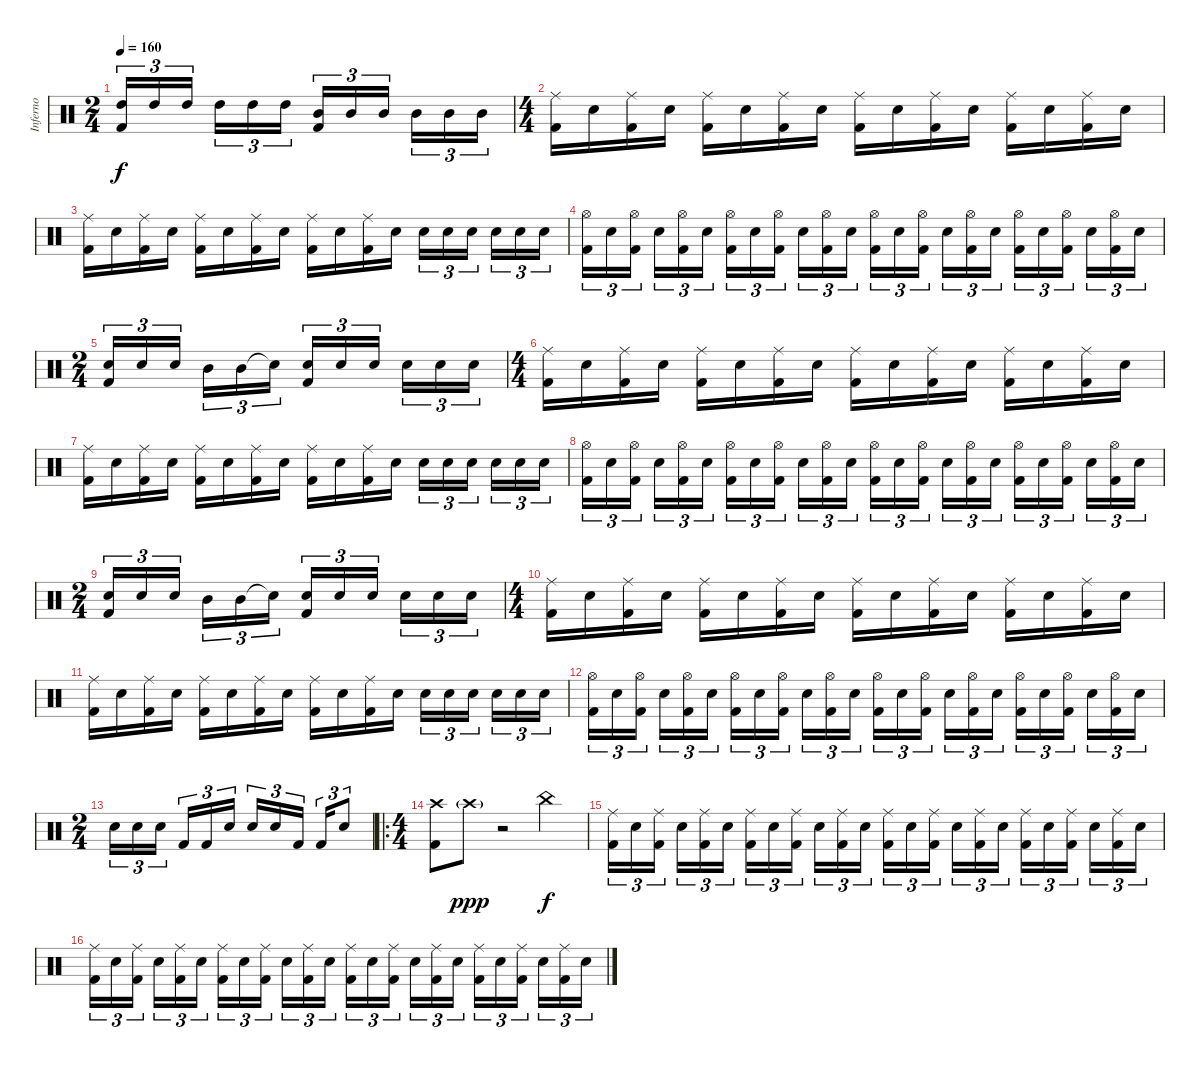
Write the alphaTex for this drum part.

\track ("Inferno" "Inferno") {instrument percussion}
\staff {score}
\articulation defaults
\ts (2 4)
\tempo 160
\clef neutral
\ks c
("High Tom (hit)" "Kick (hit) 2").16{tu (3 2) dy f} "High Tom (hit)".16{tu (3 2)} "High Tom (hit)".16{tu (3 2)} "High Tom (hit)".16{tu (3 2)} "High Tom (hit)".16{tu (3 2)} "High Tom (hit)".16{tu (3 2)} ("Mid Tom (hit)" "Kick (hit) 2").16{tu (3 2)} "Mid Tom (hit)".16{tu (3 2)} "Mid Tom (hit)".16{tu (3 2)} "Mid Tom (hit)".16{tu (3 2)} "Mid Tom (hit)".16{tu (3 2)} "Mid Tom (hit)".16{tu (3 2)} |
\ts (4 4)
("Ride (middle)" "Kick (hit) 2").16 "Electric Snare (hit)".16 ("Ride (middle)" "Kick (hit) 2").16 "Electric Snare (hit)".16 ("Ride (middle)" "Kick (hit) 2").16 "Electric Snare (hit)".16 ("Ride (middle)" "Kick (hit) 2").16 "Electric Snare (hit)".16 ("Ride (middle)" "Kick (hit) 2").16 "Electric Snare (hit)".16 ("Ride (middle)" "Kick (hit) 2").16 "Electric Snare (hit)".16 ("Ride (middle)" "Kick (hit) 2").16 "Electric Snare (hit)".16 ("Ride (middle)" "Kick (hit) 2").16 "Electric Snare (hit)".16 |
("Ride (middle)" "Kick (hit) 2").16 "Electric Snare (hit)".16 ("Ride (middle)" "Kick (hit) 2").16 "Electric Snare (hit)".16 ("Ride (middle)" "Kick (hit) 2").16 "Electric Snare (hit)".16 ("Ride (middle)" "Kick (hit) 2").16 "Electric Snare (hit)".16 ("Ride (middle)" "Kick (hit) 2").16 "Electric Snare (hit)".16 ("Ride (middle)" "Kick (hit) 2").16 "Electric Snare (hit)".16 "Electric Snare (hit)".16{tu (3 2)} "Electric Snare (hit)".16{tu (3 2)} "Electric Snare (hit)".16{tu (3 2)} "Electric Snare (hit)".16{tu (3 2)} "Electric Snare (hit)".16{tu (3 2)} "Electric Snare (hit)".16{tu (3 2)} |
("Hi-Hat (open)" "Kick (hit) 2").16{tu (3 2)} "Electric Snare (hit)".16{tu (3 2)} ("Hi-Hat (open)" "Kick (hit) 2").16{tu (3 2)} "Electric Snare (hit)".16{tu (3 2)} ("Hi-Hat (open)" "Kick (hit) 2").16{tu (3 2)} "Electric Snare (hit)".16{tu (3 2)} ("Hi-Hat (open)" "Kick (hit) 2").16{tu (3 2)} "Electric Snare (hit)".16{tu (3 2)} ("Hi-Hat (open)" "Kick (hit) 2").16{tu (3 2)} "Electric Snare (hit)".16{tu (3 2)} ("Hi-Hat (open)" "Kick (hit) 2").16{tu (3 2)} "Electric Snare (hit)".16{tu (3 2)} ("Hi-Hat (open)" "Kick (hit) 2").16{tu (3 2)} "Electric Snare (hit)".16{tu (3 2)} ("Hi-Hat (open)" "Kick (hit) 2").16{tu (3 2)} "Electric Snare (hit)".16{tu (3 2)} ("Hi-Hat (open)" "Kick (hit) 2").16{tu (3 2)} "Electric Snare (hit)".16{tu (3 2)} ("Hi-Hat (open)" "Kick (hit) 2").16{tu (3 2)} "Electric Snare (hit)".16{tu (3 2)} ("Hi-Hat (open)" "Kick (hit) 2").16{tu (3 2)} "Electric Snare (hit)".16{tu (3 2)} ("Hi-Hat (open)" "Kick (hit) 2").16{tu (3 2)} "Electric Snare (hit)".16{tu (3 2)} |
\ts (2 4)
("Electric Snare (hit)" "Kick (hit) 2").16{tu (3 2)} "Electric Snare (hit)".16{tu (3 2)} "Electric Snare (hit)".16{tu (3 2)} "Mid Tom (hit)".16{tu (3 2)} "Mid Tom (hit)".16{tu (3 2)} "Snare (hit)"{t}.16{tu (3 2)} ("Electric Snare (hit)" "Kick (hit) 2").16{tu (3 2)} "Electric Snare (hit)".16{tu (3 2)} "Electric Snare (hit)".16{tu (3 2)} "Electric Snare (hit)".16{tu (3 2)} "Electric Snare (hit)".16{tu (3 2)} "Electric Snare (hit)".16{tu (3 2)} |
\ts (4 4)
("Ride (middle)" "Kick (hit) 2").16 "Electric Snare (hit)".16 ("Ride (middle)" "Kick (hit) 2").16 "Electric Snare (hit)".16 ("Ride (middle)" "Kick (hit) 2").16 "Electric Snare (hit)".16 ("Ride (middle)" "Kick (hit) 2").16 "Electric Snare (hit)".16 ("Ride (middle)" "Kick (hit) 2").16 "Electric Snare (hit)".16 ("Ride (middle)" "Kick (hit) 2").16 "Electric Snare (hit)".16 ("Ride (middle)" "Kick (hit) 2").16 "Electric Snare (hit)".16 ("Ride (middle)" "Kick (hit) 2").16 "Electric Snare (hit)".16 |
("Ride (middle)" "Kick (hit) 2").16 "Electric Snare (hit)".16 ("Ride (middle)" "Kick (hit) 2").16 "Electric Snare (hit)".16 ("Ride (middle)" "Kick (hit) 2").16 "Electric Snare (hit)".16 ("Ride (middle)" "Kick (hit) 2").16 "Electric Snare (hit)".16 ("Ride (middle)" "Kick (hit) 2").16 "Electric Snare (hit)".16 ("Ride (middle)" "Kick (hit) 2").16 "Electric Snare (hit)".16 "Electric Snare (hit)".16{tu (3 2)} "Electric Snare (hit)".16{tu (3 2)} "Electric Snare (hit)".16{tu (3 2)} "Electric Snare (hit)".16{tu (3 2)} "Electric Snare (hit)".16{tu (3 2)} "Electric Snare (hit)".16{tu (3 2)} |
("Hi-Hat (open)" "Kick (hit) 2").16{tu (3 2)} "Electric Snare (hit)".16{tu (3 2)} ("Hi-Hat (open)" "Kick (hit) 2").16{tu (3 2)} "Electric Snare (hit)".16{tu (3 2)} ("Hi-Hat (open)" "Kick (hit) 2").16{tu (3 2)} "Electric Snare (hit)".16{tu (3 2)} ("Hi-Hat (open)" "Kick (hit) 2").16{tu (3 2)} "Electric Snare (hit)".16{tu (3 2)} ("Hi-Hat (open)" "Kick (hit) 2").16{tu (3 2)} "Electric Snare (hit)".16{tu (3 2)} ("Hi-Hat (open)" "Kick (hit) 2").16{tu (3 2)} "Electric Snare (hit)".16{tu (3 2)} ("Hi-Hat (open)" "Kick (hit) 2").16{tu (3 2)} "Electric Snare (hit)".16{tu (3 2)} ("Hi-Hat (open)" "Kick (hit) 2").16{tu (3 2)} "Electric Snare (hit)".16{tu (3 2)} ("Hi-Hat (open)" "Kick (hit) 2").16{tu (3 2)} "Electric Snare (hit)".16{tu (3 2)} ("Hi-Hat (open)" "Kick (hit) 2").16{tu (3 2)} "Electric Snare (hit)".16{tu (3 2)} ("Hi-Hat (open)" "Kick (hit) 2").16{tu (3 2)} "Electric Snare (hit)".16{tu (3 2)} ("Hi-Hat (open)" "Kick (hit) 2").16{tu (3 2)} "Electric Snare (hit)".16{tu (3 2)} |
\ts (2 4)
("Electric Snare (hit)" "Kick (hit) 2").16{tu (3 2)} "Electric Snare (hit)".16{tu (3 2)} "Electric Snare (hit)".16{tu (3 2)} "Mid Tom (hit)".16{tu (3 2)} "Mid Tom (hit)".16{tu (3 2)} "Snare (hit)"{t}.16{tu (3 2)} ("Electric Snare (hit)" "Kick (hit) 2").16{tu (3 2)} "Electric Snare (hit)".16{tu (3 2)} "Electric Snare (hit)".16{tu (3 2)} "Electric Snare (hit)".16{tu (3 2)} "Electric Snare (hit)".16{tu (3 2)} "Electric Snare (hit)".16{tu (3 2)} |
\ts (4 4)
("Ride (middle)" "Kick (hit) 2").16 "Electric Snare (hit)".16 ("Ride (middle)" "Kick (hit) 2").16 "Electric Snare (hit)".16 ("Ride (middle)" "Kick (hit) 2").16 "Electric Snare (hit)".16 ("Ride (middle)" "Kick (hit) 2").16 "Electric Snare (hit)".16 ("Ride (middle)" "Kick (hit) 2").16 "Electric Snare (hit)".16 ("Ride (middle)" "Kick (hit) 2").16 "Electric Snare (hit)".16 ("Ride (middle)" "Kick (hit) 2").16 "Electric Snare (hit)".16 ("Ride (middle)" "Kick (hit) 2").16 "Electric Snare (hit)".16 |
("Ride (middle)" "Kick (hit) 2").16 "Electric Snare (hit)".16 ("Ride (middle)" "Kick (hit) 2").16 "Electric Snare (hit)".16 ("Ride (middle)" "Kick (hit) 2").16 "Electric Snare (hit)".16 ("Ride (middle)" "Kick (hit) 2").16 "Electric Snare (hit)".16 ("Ride (middle)" "Kick (hit) 2").16 "Electric Snare (hit)".16 ("Ride (middle)" "Kick (hit) 2").16 "Electric Snare (hit)".16 "Electric Snare (hit)".16{tu (3 2)} "Electric Snare (hit)".16{tu (3 2)} "Electric Snare (hit)".16{tu (3 2)} "Electric Snare (hit)".16{tu (3 2)} "Electric Snare (hit)".16{tu (3 2)} "Electric Snare (hit)".16{tu (3 2)} |
("Hi-Hat (open)" "Kick (hit) 2").16{tu (3 2)} "Electric Snare (hit)".16{tu (3 2)} ("Hi-Hat (open)" "Kick (hit) 2").16{tu (3 2)} "Electric Snare (hit)".16{tu (3 2)} ("Hi-Hat (open)" "Kick (hit) 2").16{tu (3 2)} "Electric Snare (hit)".16{tu (3 2)} ("Hi-Hat (open)" "Kick (hit) 2").16{tu (3 2)} "Electric Snare (hit)".16{tu (3 2)} ("Hi-Hat (open)" "Kick (hit) 2").16{tu (3 2)} "Electric Snare (hit)".16{tu (3 2)} ("Hi-Hat (open)" "Kick (hit) 2").16{tu (3 2)} "Electric Snare (hit)".16{tu (3 2)} ("Hi-Hat (open)" "Kick (hit) 2").16{tu (3 2)} "Electric Snare (hit)".16{tu (3 2)} ("Hi-Hat (open)" "Kick (hit) 2").16{tu (3 2)} "Electric Snare (hit)".16{tu (3 2)} ("Hi-Hat (open)" "Kick (hit) 2").16{tu (3 2)} "Electric Snare (hit)".16{tu (3 2)} ("Hi-Hat (open)" "Kick (hit) 2").16{tu (3 2)} "Electric Snare (hit)".16{tu (3 2)} ("Hi-Hat (open)" "Kick (hit) 2").16{tu (3 2)} "Electric Snare (hit)".16{tu (3 2)} ("Hi-Hat (open)" "Kick (hit) 2").16{tu (3 2)} "Electric Snare (hit)".16{tu (3 2)} |
\ts (2 4)
"Electric Snare (hit)".16{tu (3 2)} "Electric Snare (hit)".16{tu (3 2)} "Electric Snare (hit)".16{tu (3 2)} "Kick (hit) 2".16{tu (3 2)} "Kick (hit) 2".16{tu (3 2)} "Electric Snare (hit)".16{tu (3 2)} "Electric Snare (hit)".16{tu (3 2)} "Electric Snare (hit)".16{tu (3 2)} "Kick (hit) 2".16{tu (3 2)} "Kick (hit) 2".16{tu (3 2)} "Electric Snare (hit)".8{tu (3 2)} |
\ro
\ts (4 4)
("Crash high (hit)" "Kick (hit) 2").8 "Crash high (hit)"{g}.8{dy ppp} r.2 "China (hit)".4{dy f} |
("Ride (middle)" "Kick (hit) 2").16{tu (3 2)} "Electric Snare (hit)".16{tu (3 2)} ("Ride (middle)" "Kick (hit) 2").16{tu (3 2)} "Electric Snare (hit)".16{tu (3 2)} ("Ride (middle)" "Kick (hit) 2").16{tu (3 2)} "Electric Snare (hit)".16{tu (3 2)} ("Ride (middle)" "Kick (hit) 2").16{tu (3 2)} "Electric Snare (hit)".16{tu (3 2)} ("Ride (middle)" "Kick (hit) 2").16{tu (3 2)} "Electric Snare (hit)".16{tu (3 2)} ("Ride (middle)" "Kick (hit) 2").16{tu (3 2)} "Electric Snare (hit)".16{tu (3 2)} ("Ride (middle)" "Kick (hit) 2").16{tu (3 2)} "Electric Snare (hit)".16{tu (3 2)} ("Ride (middle)" "Kick (hit) 2").16{tu (3 2)} "Electric Snare (hit)".16{tu (3 2)} ("Ride (middle)" "Kick (hit) 2").16{tu (3 2)} "Electric Snare (hit)".16{tu (3 2)} ("Ride (middle)" "Kick (hit) 2").16{tu (3 2)} "Electric Snare (hit)".16{tu (3 2)} ("Ride (middle)" "Kick (hit) 2").16{tu (3 2)} "Electric Snare (hit)".16{tu (3 2)} ("Ride (middle)" "Kick (hit) 2").16{tu (3 2)} "Electric Snare (hit)".16{tu (3 2)} |
("Ride (middle)" "Kick (hit) 2").16{tu (3 2)} "Electric Snare (hit)".16{tu (3 2)} ("Ride (middle)" "Kick (hit) 2").16{tu (3 2)} "Electric Snare (hit)".16{tu (3 2)} ("Ride (middle)" "Kick (hit) 2").16{tu (3 2)} "Electric Snare (hit)".16{tu (3 2)} ("Ride (middle)" "Kick (hit) 2").16{tu (3 2)} "Electric Snare (hit)".16{tu (3 2)} ("Ride (middle)" "Kick (hit) 2").16{tu (3 2)} "Electric Snare (hit)".16{tu (3 2)} ("Ride (middle)" "Kick (hit) 2").16{tu (3 2)} "Electric Snare (hit)".16{tu (3 2)} ("Ride (middle)" "Kick (hit) 2").16{tu (3 2)} "Electric Snare (hit)".16{tu (3 2)} ("Ride (middle)" "Kick (hit) 2").16{tu (3 2)} "Electric Snare (hit)".16{tu (3 2)} ("Ride (middle)" "Kick (hit) 2").16{tu (3 2)} "Electric Snare (hit)".16{tu (3 2)} ("Ride (middle)" "Kick (hit) 2").16{tu (3 2)} "Electric Snare (hit)".16{tu (3 2)} ("Ride (middle)" "Kick (hit) 2").16{tu (3 2)} "Electric Snare (hit)".16{tu (3 2)} ("Ride (middle)" "Kick (hit) 2").16{tu (3 2)} "Electric Snare (hit)".16{tu (3 2)}
